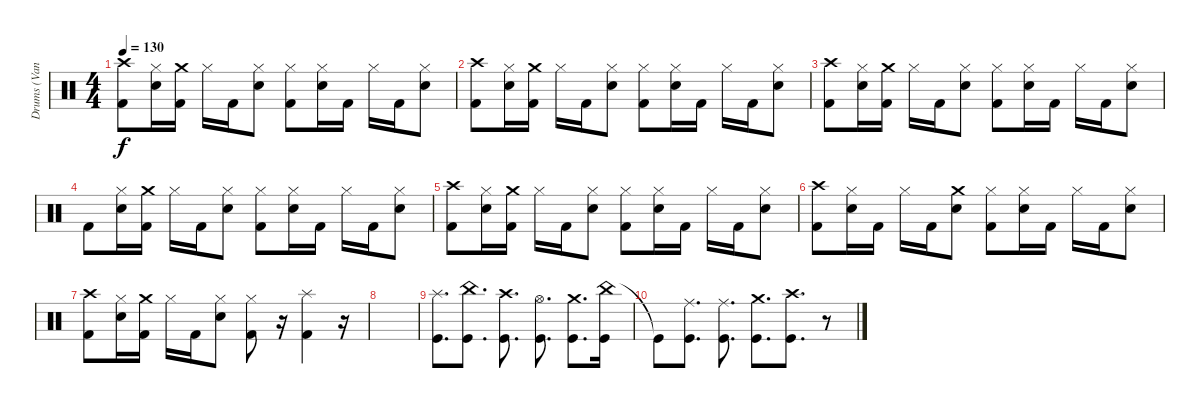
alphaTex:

\track ("Drums (Vandel)" "Drums (Van") {instrument percussion}
\staff {score}
\articulation defaults
\ts (4 4)
\tempo 130
\clef neutral
\ks c
("Crash high (hit)" "Kick (hit) 2").8{dy f} ("Hi-Hat (closed)" "Snare (hit) 2").16 ("Crash medium (hit)" "Kick (hit) 2").16 "Hi-Hat (closed)".16 "Kick (hit) 2".16 ("Hi-Hat (closed)" "Snare (hit) 2").8 ("Hi-Hat (closed)" "Kick (hit) 2").8 ("Hi-Hat (closed)" "Snare (hit) 2").16 "Kick (hit) 2".16 "Hi-Hat (closed)".16 "Kick (hit) 2".16 ("Hi-Hat (closed)" "Snare (hit) 2").8 |
("Crash high (hit)" "Kick (hit) 2").8 ("Hi-Hat (closed)" "Snare (hit) 2").16 ("Crash medium (hit)" "Kick (hit) 2").16 "Hi-Hat (closed)".16 "Kick (hit) 2".16 ("Hi-Hat (closed)" "Snare (hit) 2").8 ("Hi-Hat (closed)" "Kick (hit) 2").8 ("Hi-Hat (closed)" "Snare (hit) 2").16 "Kick (hit) 2".16 "Hi-Hat (closed)".16 "Kick (hit) 2".16 ("Hi-Hat (closed)" "Snare (hit) 2").8 |
("Crash high (hit)" "Kick (hit) 2").8 ("Hi-Hat (closed)" "Snare (hit) 2").16 ("Crash medium (hit)" "Kick (hit) 2").16 "Hi-Hat (closed)".16 "Kick (hit) 2".16 ("Hi-Hat (closed)" "Snare (hit) 2").8 ("Hi-Hat (closed)" "Kick (hit) 2").8 ("Hi-Hat (closed)" "Snare (hit) 2").16 "Kick (hit) 2".16 "Hi-Hat (closed)".16 "Kick (hit) 2".16 ("Hi-Hat (closed)" "Snare (hit) 2").8 |
"Kick (hit) 2".8 ("Hi-Hat (closed)" "Snare (hit) 2").16 ("Crash medium (hit)" "Kick (hit) 2").16 "Hi-Hat (closed)".16 "Kick (hit) 2".16 ("Hi-Hat (closed)" "Snare (hit) 2").8 ("Hi-Hat (closed)" "Kick (hit) 2").8 ("Hi-Hat (closed)" "Snare (hit) 2").16 "Kick (hit) 2".16 "Hi-Hat (closed)".16 "Kick (hit) 2".16 ("Hi-Hat (closed)" "Snare (hit) 2").8 |
("Crash high (hit)" "Kick (hit) 2").8 ("Hi-Hat (closed)" "Snare (hit) 2").16 ("Crash medium (hit)" "Kick (hit) 2").16 "Hi-Hat (closed)".16 "Kick (hit) 2".16 ("Hi-Hat (closed)" "Snare (hit) 2").8 ("Hi-Hat (closed)" "Kick (hit) 2").8 ("Hi-Hat (closed)" "Snare (hit) 2").16 "Kick (hit) 2".16 "Hi-Hat (closed)".16 "Kick (hit) 2".16 ("Hi-Hat (closed)" "Snare (hit) 2").8 |
("Crash high (hit)" "Kick (hit) 2").8 ("Hi-Hat (closed)" "Snare (hit) 2").16 "Kick (hit) 2".16 "Hi-Hat (closed)".16 "Kick (hit) 2".16 ("Crash medium (hit)" "Snare (hit) 2").8 ("Hi-Hat (closed)" "Kick (hit) 2").8 ("Hi-Hat (closed)" "Snare (hit) 2").16 "Kick (hit) 2".16 "Hi-Hat (closed)".16 "Kick (hit) 2".16 ("Hi-Hat (closed)" "Snare (hit) 2").8 |
("Crash high (hit)" "Kick (hit) 2").8 ("Hi-Hat (closed)" "Snare (hit) 2").16 ("Crash medium (hit)" "Kick (hit) 2").16 "Hi-Hat (closed)".16 "Kick (hit) 2".16 ("Hi-Hat (closed)" "Snare (hit) 2").8 ("Hi-Hat (closed)" "Kick (hit) 2").8 r.16 ("Splash (hit)" "Kick (hit) 2").4 r.16 |
|
("Splash (hit)" "Kick (hit)").8{d} ("China (hit)" "Kick (hit)").8{d} ("Crash high (hit)" "Kick (hit)").8{d} ("Hi-Hat (open)" "Kick (hit)").8{d} ("Crash medium (hit)" "Kick (hit)").8{d} ("China (hit)" "Kick (hit)").16 |
"Kick (hit)"{t}.8 ("Ride (middle)" "Kick (hit)").8{d} ("Ride (middle)" "Kick (hit)").8{d} ("Crash medium (hit)" "Kick (hit)").8{d} ("Crash high (hit)" "Kick (hit)").8{d} r.8
